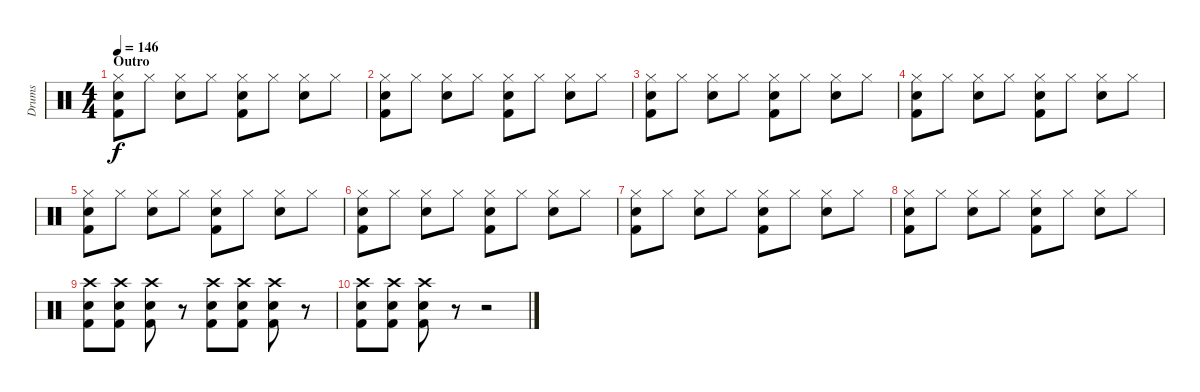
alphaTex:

\track ("Drums" "Drums") {instrument percussion}
\staff {score}
\articulation defaults
\ts (4 4)
\section ("" "Outro")
\tempo 146
\clef neutral
\ks c
("Hi-Hat (closed)" "Snare (hit) 2" "Kick (hit) 2").8{dy f} "Hi-Hat (closed)".8 ("Hi-Hat (closed)" "Snare (hit) 2").8 "Hi-Hat (closed)".8 ("Hi-Hat (closed)" "Snare (hit) 2" "Kick (hit) 2").8 "Hi-Hat (closed)".8 ("Hi-Hat (closed)" "Snare (hit) 2").8 "Hi-Hat (closed)".8 |
("Hi-Hat (closed)" "Snare (hit) 2" "Kick (hit) 2").8 "Hi-Hat (closed)".8 ("Hi-Hat (closed)" "Snare (hit) 2").8 "Hi-Hat (closed)".8 ("Hi-Hat (closed)" "Snare (hit) 2" "Kick (hit) 2").8 "Hi-Hat (closed)".8 ("Hi-Hat (closed)" "Snare (hit) 2").8 "Hi-Hat (closed)".8 |
("Hi-Hat (closed)" "Snare (hit) 2" "Kick (hit) 2").8 "Hi-Hat (closed)".8 ("Hi-Hat (closed)" "Snare (hit) 2").8 "Hi-Hat (closed)".8 ("Hi-Hat (closed)" "Snare (hit) 2" "Kick (hit) 2").8 "Hi-Hat (closed)".8 ("Hi-Hat (closed)" "Snare (hit) 2").8 "Hi-Hat (closed)".8 |
("Hi-Hat (closed)" "Snare (hit) 2" "Kick (hit) 2").8 "Hi-Hat (closed)".8 ("Hi-Hat (closed)" "Snare (hit) 2").8 "Hi-Hat (closed)".8 ("Hi-Hat (closed)" "Snare (hit) 2" "Kick (hit) 2").8 "Hi-Hat (closed)".8 ("Hi-Hat (closed)" "Snare (hit) 2").8 "Hi-Hat (closed)".8 |
("Hi-Hat (closed)" "Snare (hit) 2" "Kick (hit) 2").8 "Hi-Hat (closed)".8 ("Hi-Hat (closed)" "Snare (hit) 2").8 "Hi-Hat (closed)".8 ("Hi-Hat (closed)" "Snare (hit) 2" "Kick (hit) 2").8 "Hi-Hat (closed)".8 ("Hi-Hat (closed)" "Snare (hit) 2").8 "Hi-Hat (closed)".8 |
("Hi-Hat (closed)" "Snare (hit) 2" "Kick (hit) 2").8 "Hi-Hat (closed)".8 ("Hi-Hat (closed)" "Snare (hit) 2").8 "Hi-Hat (closed)".8 ("Hi-Hat (closed)" "Snare (hit) 2" "Kick (hit) 2").8 "Hi-Hat (closed)".8 ("Hi-Hat (closed)" "Snare (hit) 2").8 "Hi-Hat (closed)".8 |
("Hi-Hat (closed)" "Snare (hit) 2" "Kick (hit) 2").8 "Hi-Hat (closed)".8 ("Hi-Hat (closed)" "Snare (hit) 2").8 "Hi-Hat (closed)".8 ("Hi-Hat (closed)" "Snare (hit) 2" "Kick (hit) 2").8 "Hi-Hat (closed)".8 ("Hi-Hat (closed)" "Snare (hit) 2").8 "Hi-Hat (closed)".8 |
("Hi-Hat (closed)" "Snare (hit) 2" "Kick (hit) 2").8 "Hi-Hat (closed)".8 ("Hi-Hat (closed)" "Snare (hit) 2").8 "Hi-Hat (closed)".8 ("Hi-Hat (closed)" "Snare (hit) 2" "Kick (hit) 2").8 "Hi-Hat (closed)".8 ("Hi-Hat (closed)" "Snare (hit) 2").8 "Hi-Hat (closed)".8 |
("Crash high (hit)" "Snare (hit) 2" "Kick (hit) 2").8 ("Crash high (hit)" "Snare (hit) 2" "Kick (hit) 2").8 ("Crash high (hit)" "Snare (hit) 2" "Kick (hit) 2").8 r.8 ("Crash high (hit)" "Snare (hit) 2" "Kick (hit) 2").8 ("Crash high (hit)" "Snare (hit) 2" "Kick (hit) 2").8 ("Crash high (hit)" "Snare (hit) 2" "Kick (hit) 2").8 r.8 |
("Crash high (hit)" "Snare (hit) 2" "Kick (hit) 2").8 ("Crash high (hit)" "Snare (hit) 2" "Kick (hit) 2").8 ("Crash high (hit)" "Snare (hit) 2" "Kick (hit) 2").8 r.8 r.2
